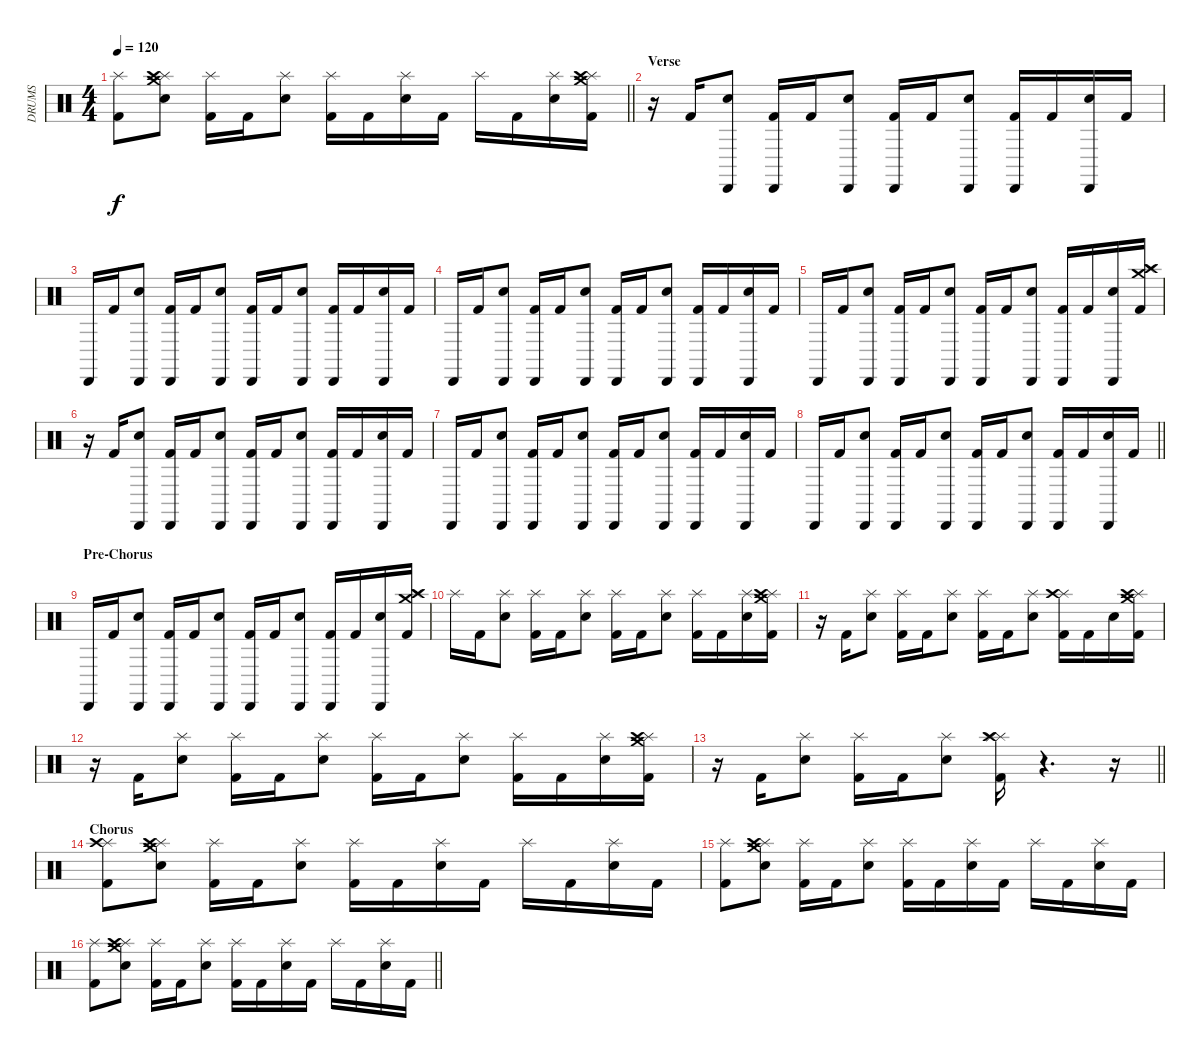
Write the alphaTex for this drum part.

\track ("DRUMS" "DRUMS") {instrument percussion}
\staff {score}
\articulation defaults
\ts (4 4)
\tempo 120
\clef neutral
\barLineRight lightlight
\ks c
("Splash (hit)" "Kick (hit) 2").8{dy f} ("Crash medium (hit)" "Splash (hit)" "Crash high (hit)" "Electric Snare (hit)").8 ("Splash (hit)" "Kick (hit) 2").16 "Kick (hit) 2".16 ("Splash (hit)" "Electric Snare (hit)").8 ("Splash (hit)" "Kick (hit) 2").16 "Kick (hit) 2".16 ("Splash (hit)" "Electric Snare (hit)").16 "Kick (hit) 2".16 "Splash (hit)".16 "Kick (hit) 2".16 ("Splash (hit)" "Electric Snare (hit)").16 ("Crash medium (hit)" "Splash (hit)" "Crash high (hit)" "Kick (hit) 2").16 |
\section ("" "Verse")
r.16 "Kick (hit) 2".16 ("Cabasa (hit)" "Electric Snare (hit)").8 ("Cabasa (hit)" "Kick (hit) 2").16 "Kick (hit) 2".16 ("Cabasa (hit)" "Electric Snare (hit)").8 ("Cabasa (hit)" "Kick (hit) 2").16 "Kick (hit) 2".16 ("Cabasa (hit)" "Electric Snare (hit)").8 ("Cabasa (hit)" "Kick (hit) 2").16 "Kick (hit) 2".16 ("Cabasa (hit)" "Electric Snare (hit)").16 "Kick (hit) 2".16 |
"Cabasa (hit)".16 "Kick (hit) 2".16 ("Cabasa (hit)" "Electric Snare (hit)").8 ("Cabasa (hit)" "Kick (hit) 2").16 "Kick (hit) 2".16 ("Cabasa (hit)" "Electric Snare (hit)").8 ("Cabasa (hit)" "Kick (hit) 2").16 "Kick (hit) 2".16 ("Cabasa (hit)" "Electric Snare (hit)").8 ("Cabasa (hit)" "Kick (hit) 2").16 "Kick (hit) 2".16 ("Cabasa (hit)" "Electric Snare (hit)").16 "Kick (hit) 2".16 |
"Cabasa (hit)".16 "Kick (hit) 2".16 ("Cabasa (hit)" "Electric Snare (hit)").8 ("Cabasa (hit)" "Kick (hit) 2").16 "Kick (hit) 2".16 ("Cabasa (hit)" "Electric Snare (hit)").8 ("Cabasa (hit)" "Kick (hit) 2").16 "Kick (hit) 2".16 ("Cabasa (hit)" "Electric Snare (hit)").8 ("Cabasa (hit)" "Kick (hit) 2").16 "Kick (hit) 2".16 ("Cabasa (hit)" "Electric Snare (hit)").16 "Kick (hit) 2".16 |
"Cabasa (hit)".16 "Kick (hit) 2".16 ("Cabasa (hit)" "Electric Snare (hit)").8 ("Cabasa (hit)" "Kick (hit) 2").16 "Kick (hit) 2".16 ("Cabasa (hit)" "Electric Snare (hit)").8 ("Cabasa (hit)" "Kick (hit) 2").16 "Kick (hit) 2".16 ("Cabasa (hit)" "Electric Snare (hit)").8 ("Cabasa (hit)" "Kick (hit) 2").16 "Kick (hit) 2".16 ("Cabasa (hit)" "Electric Snare (hit)").16 ("Crash medium (hit)" "Splash (hit)" "Crash high (hit)" "Kick (hit) 2").16 |
r.16 "Kick (hit) 2".16 ("Cabasa (hit)" "Electric Snare (hit)").8 ("Cabasa (hit)" "Kick (hit) 2").16 "Kick (hit) 2".16 ("Cabasa (hit)" "Electric Snare (hit)").8 ("Cabasa (hit)" "Kick (hit) 2").16 "Kick (hit) 2".16 ("Cabasa (hit)" "Electric Snare (hit)").8 ("Cabasa (hit)" "Kick (hit) 2").16 "Kick (hit) 2".16 ("Cabasa (hit)" "Electric Snare (hit)").16 "Kick (hit) 2".16 |
"Cabasa (hit)".16 "Kick (hit) 2".16 ("Cabasa (hit)" "Electric Snare (hit)").8 ("Cabasa (hit)" "Kick (hit) 2").16 "Kick (hit) 2".16 ("Cabasa (hit)" "Electric Snare (hit)").8 ("Cabasa (hit)" "Kick (hit) 2").16 "Kick (hit) 2".16 ("Cabasa (hit)" "Electric Snare (hit)").8 ("Cabasa (hit)" "Kick (hit) 2").16 "Kick (hit) 2".16 ("Cabasa (hit)" "Electric Snare (hit)").16 "Kick (hit) 2".16 |
\barLineRight lightlight "Cabasa (hit)".16 "Kick (hit) 2".16
("Cabasa (hit)" "Electric Snare (hit)").8 ("Cabasa (hit)" "Kick (hit) 2").16 "Kick (hit) 2".16 ("Cabasa (hit)" "Electric Snare (hit)").8 ("Cabasa (hit)" "Kick (hit) 2").16 "Kick (hit) 2".16 ("Cabasa (hit)" "Electric Snare (hit)").8 ("Cabasa (hit)" "Kick (hit) 2").16 "Kick (hit) 2".16 ("Cabasa (hit)" "Electric Snare (hit)").16 "Kick (hit) 2".16 |
\section ("" "Pre-Chorus")
"Cabasa (hit)".16 "Kick (hit) 2".16 ("Cabasa (hit)" "Electric Snare (hit)").8 ("Cabasa (hit)" "Kick (hit) 2").16 "Kick (hit) 2".16 ("Cabasa (hit)" "Electric Snare (hit)").8 ("Cabasa (hit)" "Kick (hit) 2").16 "Kick (hit) 2".16 ("Cabasa (hit)" "Electric Snare (hit)").8 ("Cabasa (hit)" "Kick (hit) 2").16 "Kick (hit) 2".16 ("Cabasa (hit)" "Electric Snare (hit)").16 ("Crash medium (hit)" "Splash (hit)" "Crash high (hit)" "Kick (hit) 2").16 |
"Splash (hit)".16 "Kick (hit) 2".16 ("Splash (hit)" "Electric Snare (hit)").8 ("Splash (hit)" "Kick (hit) 2").16 "Kick (hit) 2".16 ("Splash (hit)" "Electric Snare (hit)").8 ("Splash (hit)" "Kick (hit) 2").16 "Kick (hit) 2".16 ("Splash (hit)" "Electric Snare (hit)").8 ("Splash (hit)" "Kick (hit) 2").16 "Kick (hit) 2".16 ("Splash (hit)" "Electric Snare (hit)").16 ("Crash medium (hit)" "Splash (hit)" "Crash high (hit)" "Kick (hit) 2").16 |
r.16 "Kick (hit) 2".16 ("Splash (hit)" "Electric Snare (hit)").8 ("Splash (hit)" "Kick (hit) 2").16 "Kick (hit) 2".16 ("Splash (hit)" "Electric Snare (hit)").8 ("Splash (hit)" "Kick (hit) 2").16 "Kick (hit) 2".16 ("Splash (hit)" "Electric Snare (hit)").8 ("Splash (hit)" "Crash high (hit)" "Kick (hit) 2").16 "Kick (hit) 2".16 "Electric Snare (hit)".16 ("Crash medium (hit)" "Splash (hit)" "Crash high (hit)" "Kick (hit) 2").16 |
r.16 "Kick (hit) 2".16 ("Splash (hit)" "Electric Snare (hit)").8 ("Splash (hit)" "Kick (hit) 2").16 "Kick (hit) 2".16 ("Splash (hit)" "Electric Snare (hit)").8 ("Splash (hit)" "Kick (hit) 2").16 "Kick (hit) 2".16 ("Splash (hit)" "Electric Snare (hit)").8 ("Splash (hit)" "Kick (hit) 2").16 "Kick (hit) 2".16 ("Splash (hit)" "Electric Snare (hit)").16 ("Crash medium (hit)" "Splash (hit)" "Crash high (hit)" "Kick (hit) 2").16 |
\barLineRight lightlight
r.16 "Kick (hit) 2".16 ("Splash (hit)" "Electric Snare (hit)").8 ("Splash (hit)" "Kick (hit) 2").16 "Kick (hit) 2".16 ("Splash (hit)" "Electric Snare (hit)").8 ("Splash (hit)" "Splash (hit)" "Crash high (hit)" "Kick (hit) 2").16 r.4{d} r.16 |
\section ("" "Chorus")
("Splash (hit)" "Crash high (hit)" "Kick (hit) 2").8 ("Crash medium (hit)" "Splash (hit)" "Crash high (hit)" "Electric Snare (hit)").8 ("Splash (hit)" "Kick (hit) 2").16 "Kick (hit) 2".16 ("Splash (hit)" "Electric Snare (hit)").8 ("Splash (hit)" "Kick (hit) 2").16 "Kick (hit) 2".16 ("Splash (hit)" "Electric Snare (hit)").16 "Kick (hit) 2".16 "Splash (hit)".16 "Kick (hit) 2".16 ("Splash (hit)" "Electric Snare (hit)").16 "Kick (hit) 2".16 |
("Splash (hit)" "Kick (hit) 2").8 ("Crash medium (hit)" "Splash (hit)" "Crash high (hit)" "Electric Snare (hit)").8 ("Splash (hit)" "Kick (hit) 2").16 "Kick (hit) 2".16 ("Splash (hit)" "Electric Snare (hit)").8 ("Splash (hit)" "Kick (hit) 2").16 "Kick (hit) 2".16 ("Splash (hit)" "Electric Snare (hit)").16 "Kick (hit) 2".16 "Splash (hit)".16 "Kick (hit) 2".16 ("Splash (hit)" "Electric Snare (hit)").16 "Kick (hit) 2".16 |
\barLineRight lightlight
("Splash (hit)" "Kick (hit) 2").8 ("Crash medium (hit)" "Splash (hit)" "Crash high (hit)" "Electric Snare (hit)").8 ("Splash (hit)" "Kick (hit) 2").16 "Kick (hit) 2".16 ("Splash (hit)" "Electric Snare (hit)").8 ("Splash (hit)" "Kick (hit) 2").16 "Kick (hit) 2".16 ("Splash (hit)" "Electric Snare (hit)").16 "Kick (hit) 2".16 "Splash (hit)".16 "Kick (hit) 2".16 ("Splash (hit)" "Electric Snare (hit)").16 "Kick (hit) 2".16
